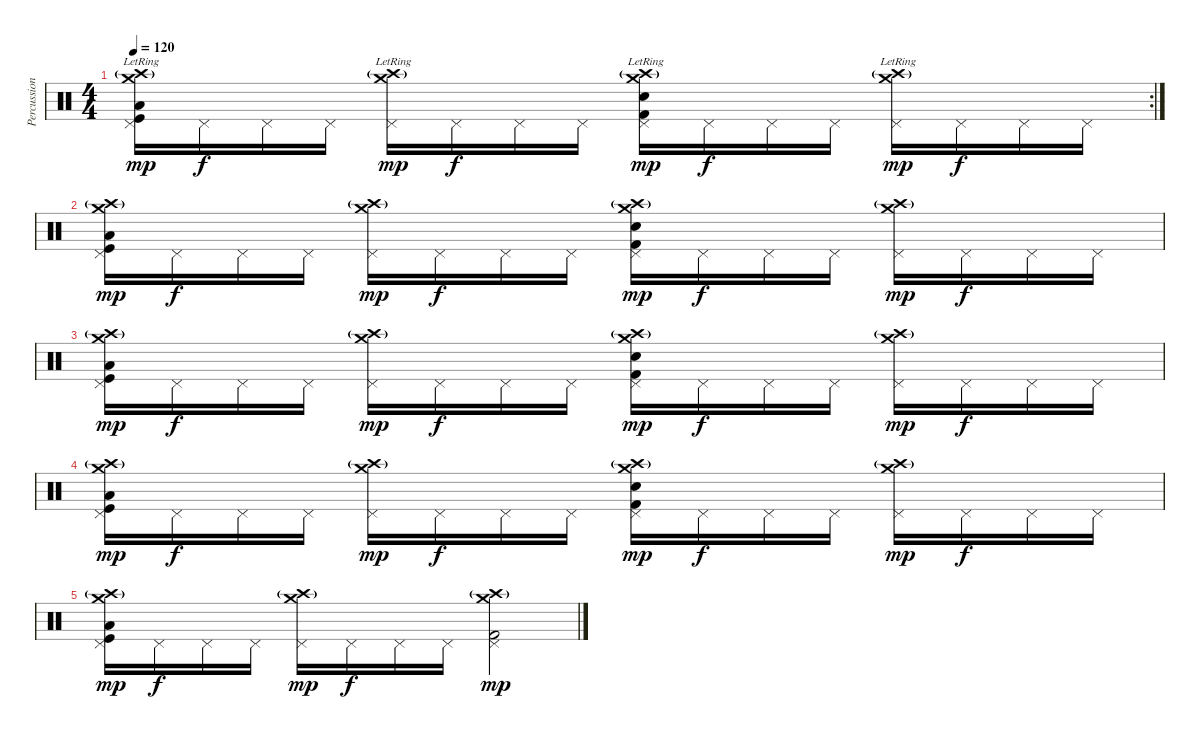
\track ("Percussion" "Percussion") {instrument percussion}
\staff {score}
\articulation defaults
\rc 2
\ts (4 4)
\tempo 120
\clef neutral
\ks c
("Crash high (hit)"{g lr} "Pedal Hi-Hat (hit)" "Kick (hit)" "Crash medium (hit)" "Low Floor Tom (hit)").16{dy mp} "Pedal Hi-Hat (hit)".16{dy f} "Pedal Hi-Hat (hit)".16 "Pedal Hi-Hat (hit)".16 ("Crash high (hit)"{g lr} "Pedal Hi-Hat (hit)" "Crash medium (hit)").16{dy mp} "Pedal Hi-Hat (hit)".16{dy f} "Pedal Hi-Hat (hit)".16 "Pedal Hi-Hat (hit)".16 ("Crash high (hit)"{g lr} "Pedal Hi-Hat (hit)" "Electric Snare (hit)" "Crash medium (hit)" "Kick (hit) 2").16{dy mp} "Pedal Hi-Hat (hit)".16{dy f} "Pedal Hi-Hat (hit)".16 "Pedal Hi-Hat (hit)".16 ("Crash high (hit)"{g lr} "Pedal Hi-Hat (hit)" "Crash medium (hit)").16{dy mp} "Pedal Hi-Hat (hit)".16{dy f} "Pedal Hi-Hat (hit)".16 "Pedal Hi-Hat (hit)".16 |
("Crash medium (hit)" "Pedal Hi-Hat (hit)" "Crash high (hit)"{g} "Kick (hit)" "Low Floor Tom (hit)").16{dy mp} "Pedal Hi-Hat (hit)".16{dy f} "Pedal Hi-Hat (hit)".16 "Pedal Hi-Hat (hit)".16 ("Crash medium (hit)" "Pedal Hi-Hat (hit)" "Crash high (hit)"{g}).16{dy mp} "Pedal Hi-Hat (hit)".16{dy f} "Pedal Hi-Hat (hit)".16 "Pedal Hi-Hat (hit)".16 ("Crash medium (hit)" "Pedal Hi-Hat (hit)" "Crash high (hit)"{g} "Electric Snare (hit)" "Kick (hit) 2").16{dy mp} "Pedal Hi-Hat (hit)".16{dy f} "Pedal Hi-Hat (hit)".16 "Pedal Hi-Hat (hit)".16 ("Crash medium (hit)" "Pedal Hi-Hat (hit)" "Crash high (hit)"{g}).16{dy mp} "Pedal Hi-Hat (hit)".16{dy f} "Pedal Hi-Hat (hit)".16 "Pedal Hi-Hat (hit)".16 |
("Crash medium (hit)" "Pedal Hi-Hat (hit)" "Crash high (hit)"{g} "Kick (hit)" "Low Floor Tom (hit)").16{dy mp} "Pedal Hi-Hat (hit)".16{dy f} "Pedal Hi-Hat (hit)".16 "Pedal Hi-Hat (hit)".16 ("Crash medium (hit)" "Pedal Hi-Hat (hit)" "Crash high (hit)"{g}).16{dy mp} "Pedal Hi-Hat (hit)".16{dy f} "Pedal Hi-Hat (hit)".16 "Pedal Hi-Hat (hit)".16 ("Crash medium (hit)" "Pedal Hi-Hat (hit)" "Crash high (hit)"{g} "Electric Snare (hit)" "Kick (hit) 2").16{dy mp} "Pedal Hi-Hat (hit)".16{dy f} "Pedal Hi-Hat (hit)".16 "Pedal Hi-Hat (hit)".16 ("Crash medium (hit)" "Pedal Hi-Hat (hit)" "Crash high (hit)"{g}).16{dy mp} "Pedal Hi-Hat (hit)".16{dy f} "Pedal Hi-Hat (hit)".16 "Pedal Hi-Hat (hit)".16 |
("Crash medium (hit)" "Pedal Hi-Hat (hit)" "Crash high (hit)"{g} "Low Floor Tom (hit)" "Kick (hit)").16{dy mp} "Pedal Hi-Hat (hit)".16{dy f} "Pedal Hi-Hat (hit)".16 "Pedal Hi-Hat (hit)".16 ("Crash medium (hit)" "Pedal Hi-Hat (hit)" "Crash high (hit)"{g}).16{dy mp} "Pedal Hi-Hat (hit)".16{dy f} "Pedal Hi-Hat (hit)".16 "Pedal Hi-Hat (hit)".16 ("Crash medium (hit)" "Pedal Hi-Hat (hit)" "Crash high (hit)"{g} "Electric Snare (hit)" "Kick (hit) 2").16{dy mp} "Pedal Hi-Hat (hit)".16{dy f} "Pedal Hi-Hat (hit)".16 "Pedal Hi-Hat (hit)".16 ("Crash medium (hit)" "Pedal Hi-Hat (hit)" "Crash high (hit)"{g}).16{dy mp} "Pedal Hi-Hat (hit)".16{dy f} "Pedal Hi-Hat (hit)".16 "Pedal Hi-Hat (hit)".16 |
("Crash medium (hit)" "Pedal Hi-Hat (hit)" "Crash high (hit)"{g} "Low Floor Tom (hit)" "Kick (hit)").16{dy mp} "Pedal Hi-Hat (hit)".16{dy f} "Pedal Hi-Hat (hit)".16 "Pedal Hi-Hat (hit)".16 ("Crash medium (hit)" "Pedal Hi-Hat (hit)" "Crash high (hit)"{g}).16{dy mp} "Pedal Hi-Hat (hit)".16{dy f} "Pedal Hi-Hat (hit)".16 "Pedal Hi-Hat (hit)".16 ("Crash medium (hit)" "Pedal Hi-Hat (hit)" "Crash high (hit)"{g} "Kick (hit) 2").2{dy mp}
